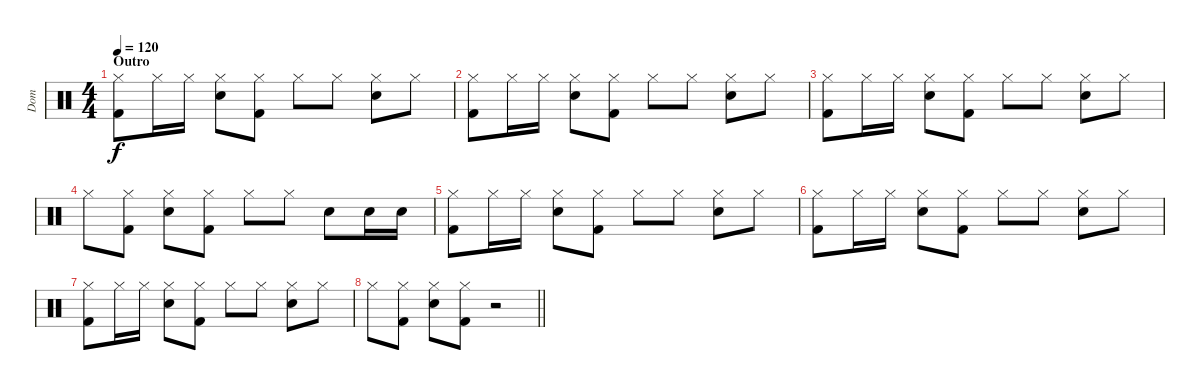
\track ("Dom" "Dom") {instrument percussion}
\staff {score}
\articulation defaults
\ts (4 4)
\section ("" "Outro")
\tempo 120
\clef neutral
\ks c
("Kick (hit) 2" "Hi-Hat (closed)").8{dy f} "Hi-Hat (closed)".16 "Hi-Hat (closed)".16 ("Snare (hit) 2" "Hi-Hat (closed)").8 ("Kick (hit) 2" "Hi-Hat (closed)").8 "Hi-Hat (closed)".8 "Hi-Hat (closed)".8 ("Snare (hit) 2" "Hi-Hat (closed)").8 "Hi-Hat (closed)".8 |
("Kick (hit) 2" "Hi-Hat (closed)").8 "Hi-Hat (closed)".16 "Hi-Hat (closed)".16 ("Snare (hit) 2" "Hi-Hat (closed)").8 ("Kick (hit) 2" "Hi-Hat (closed)").8 "Hi-Hat (closed)".8 "Hi-Hat (closed)".8 ("Snare (hit) 2" "Hi-Hat (closed)").8 "Hi-Hat (closed)".8 |
("Kick (hit) 2" "Hi-Hat (closed)").8 "Hi-Hat (closed)".16 "Hi-Hat (closed)".16 ("Snare (hit) 2" "Hi-Hat (closed)").8 ("Kick (hit) 2" "Hi-Hat (closed)").8 "Hi-Hat (closed)".8 "Hi-Hat (closed)".8 ("Snare (hit) 2" "Hi-Hat (closed)").8 "Hi-Hat (closed)".8 |
"Hi-Hat (closed)".8 ("Kick (hit) 2" "Hi-Hat (closed)").8 ("Snare (hit) 2" "Hi-Hat (closed)").8 ("Kick (hit) 2" "Hi-Hat (closed)").8 "Hi-Hat (closed)".8 "Hi-Hat (closed)".8 "Snare (hit) 2".8 "Snare (hit) 2".16 "Snare (hit) 2".16 |
("Kick (hit) 2" "Hi-Hat (closed)").8 "Hi-Hat (closed)".16 "Hi-Hat (closed)".16 ("Snare (hit) 2" "Hi-Hat (closed)").8 ("Kick (hit) 2" "Hi-Hat (closed)").8 "Hi-Hat (closed)".8 "Hi-Hat (closed)".8 ("Snare (hit) 2" "Hi-Hat (closed)").8 "Hi-Hat (closed)".8 |
("Kick (hit) 2" "Hi-Hat (closed)").8 "Hi-Hat (closed)".16 "Hi-Hat (closed)".16 ("Snare (hit) 2" "Hi-Hat (closed)").8 ("Kick (hit) 2" "Hi-Hat (closed)").8 "Hi-Hat (closed)".8 "Hi-Hat (closed)".8 ("Snare (hit) 2" "Hi-Hat (closed)").8 "Hi-Hat (closed)".8 |
("Kick (hit) 2" "Hi-Hat (closed)").8 "Hi-Hat (closed)".16 "Hi-Hat (closed)".16 ("Snare (hit) 2" "Hi-Hat (closed)").8 ("Kick (hit) 2" "Hi-Hat (closed)").8 "Hi-Hat (closed)".8 "Hi-Hat (closed)".8 ("Snare (hit) 2" "Hi-Hat (closed)").8 "Hi-Hat (closed)".8 |
\barLineRight lightlight "Hi-Hat (closed)".8
("Kick (hit) 2" "Hi-Hat (closed)").8 ("Snare (hit) 2" "Hi-Hat (closed)").8 ("Kick (hit) 2" "Hi-Hat (closed)").8 r.2
